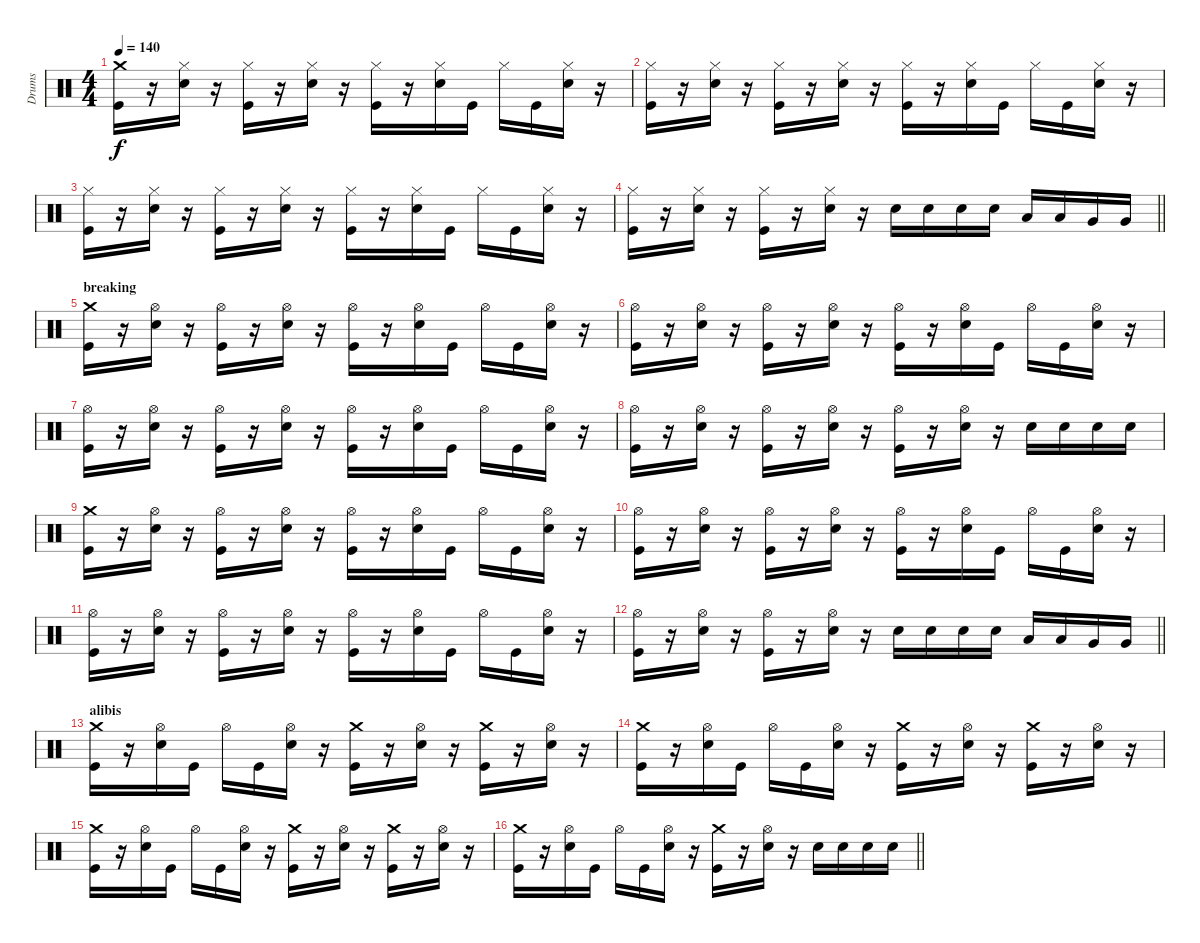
\track ("Drums" "Drums") {instrument percussion}
\staff {score}
\articulation defaults
\ts (4 4)
\tempo 140
\clef neutral
\ks c
("Crash medium (hit)" "Kick (hit)").16{dy f} r.16 ("Hi-Hat (closed)" "Snare (hit) 2").16 r.16 ("Hi-Hat (closed)" "Kick (hit)").16 r.16 ("Hi-Hat (closed)" "Snare (hit) 2").16 r.16 ("Hi-Hat (closed)" "Kick (hit)").16 r.16 ("Hi-Hat (closed)" "Snare (hit) 2").16 "Kick (hit)".16 "Hi-Hat (closed)".16 "Kick (hit)".16 ("Hi-Hat (closed)" "Snare (hit) 2").16 r.16 |
("Hi-Hat (closed)" "Kick (hit)").16 r.16 ("Hi-Hat (closed)" "Snare (hit) 2").16 r.16 ("Hi-Hat (closed)" "Kick (hit)").16 r.16 ("Hi-Hat (closed)" "Snare (hit) 2").16 r.16 ("Hi-Hat (closed)" "Kick (hit)").16 r.16 ("Hi-Hat (closed)" "Snare (hit) 2").16 "Kick (hit)".16 "Hi-Hat (closed)".16 "Kick (hit)".16 ("Hi-Hat (closed)" "Snare (hit) 2").16 r.16 |
("Hi-Hat (closed)" "Kick (hit)").16 r.16 ("Hi-Hat (closed)" "Snare (hit) 2").16 r.16 ("Hi-Hat (closed)" "Kick (hit)").16 r.16 ("Hi-Hat (closed)" "Snare (hit) 2").16 r.16 ("Hi-Hat (closed)" "Kick (hit)").16 r.16 ("Hi-Hat (closed)" "Snare (hit) 2").16 "Kick (hit)".16 "Hi-Hat (closed)".16 "Kick (hit)".16 ("Hi-Hat (closed)" "Snare (hit) 2").16 r.16 |
\barLineRight lightlight
("Hi-Hat (closed)" "Kick (hit)").16 r.16 ("Hi-Hat (closed)" "Snare (hit) 2").16 r.16 ("Hi-Hat (closed)" "Kick (hit)").16 r.16 ("Hi-Hat (closed)" "Snare (hit) 2").16 r.16 "Snare (hit) 2".16 "Snare (hit) 2".16 "Snare (hit) 2".16 "Snare (hit) 2".16 "Low Tom (hit)".16 "Low Tom (hit)".16 "Very Low Tom (hit)".16 "Very Low Tom (hit)".16 |
\section ("" "breaking")
("Crash medium (hit)" "Kick (hit)").16 r.16 ("Hi-Hat (open)" "Snare (hit) 2").16 r.16 ("Hi-Hat (open)" "Kick (hit)").16 r.16 ("Hi-Hat (open)" "Snare (hit) 2").16 r.16 ("Hi-Hat (open)" "Kick (hit)").16 r.16 ("Hi-Hat (open)" "Snare (hit) 2").16 "Kick (hit)".16 "Hi-Hat (open)".16 "Kick (hit)".16 ("Hi-Hat (open)" "Snare (hit) 2").16 r.16 |
("Hi-Hat (open)" "Kick (hit)").16 r.16 ("Hi-Hat (open)" "Snare (hit) 2").16 r.16 ("Hi-Hat (open)" "Kick (hit)").16 r.16 ("Hi-Hat (open)" "Snare (hit) 2").16 r.16 ("Hi-Hat (open)" "Kick (hit)").16 r.16 ("Hi-Hat (open)" "Snare (hit) 2").16 "Kick (hit)".16 "Hi-Hat (open)".16 "Kick (hit)".16 ("Hi-Hat (open)" "Snare (hit) 2").16 r.16 |
("Hi-Hat (open)" "Kick (hit)").16 r.16 ("Hi-Hat (open)" "Snare (hit) 2").16 r.16 ("Hi-Hat (open)" "Kick (hit)").16 r.16 ("Hi-Hat (open)" "Snare (hit) 2").16 r.16 ("Hi-Hat (open)" "Kick (hit)").16 r.16 ("Hi-Hat (open)" "Snare (hit) 2").16 "Kick (hit)".16 "Hi-Hat (open)".16 "Kick (hit)".16 ("Hi-Hat (open)" "Snare (hit) 2").16 r.16 |
("Hi-Hat (open)" "Kick (hit)").16 r.16 ("Hi-Hat (open)" "Snare (hit) 2").16 r.16 ("Hi-Hat (open)" "Kick (hit)").16 r.16 ("Hi-Hat (open)" "Snare (hit) 2").16 r.16 ("Hi-Hat (open)" "Kick (hit)").16 r.16 ("Hi-Hat (open)" "Snare (hit) 2").16 r.16 "Snare (hit) 2".16 "Snare (hit) 2".16 "Snare (hit) 2".16 "Snare (hit) 2".16 |
("Crash medium (hit)" "Kick (hit)").16 r.16 ("Hi-Hat (open)" "Snare (hit) 2").16 r.16 ("Hi-Hat (open)" "Kick (hit)").16 r.16 ("Hi-Hat (open)" "Snare (hit) 2").16 r.16 ("Hi-Hat (open)" "Kick (hit)").16 r.16 ("Hi-Hat (open)" "Snare (hit) 2").16 "Kick (hit)".16 "Hi-Hat (open)".16 "Kick (hit)".16 ("Hi-Hat (open)" "Snare (hit) 2").16 r.16 |
("Hi-Hat (open)" "Kick (hit)").16 r.16 ("Hi-Hat (open)" "Snare (hit) 2").16 r.16 ("Hi-Hat (open)" "Kick (hit)").16 r.16 ("Hi-Hat (open)" "Snare (hit) 2").16 r.16 ("Hi-Hat (open)" "Kick (hit)").16 r.16 ("Hi-Hat (open)" "Snare (hit) 2").16 "Kick (hit)".16 "Hi-Hat (open)".16 "Kick (hit)".16 ("Hi-Hat (open)" "Snare (hit) 2").16 r.16 |
("Hi-Hat (open)" "Kick (hit)").16 r.16 ("Hi-Hat (open)" "Snare (hit) 2").16 r.16 ("Hi-Hat (open)" "Kick (hit)").16 r.16 ("Hi-Hat (open)" "Snare (hit) 2").16 r.16 ("Hi-Hat (open)" "Kick (hit)").16 r.16 ("Hi-Hat (open)" "Snare (hit) 2").16 "Kick (hit)".16 "Hi-Hat (open)".16 "Kick (hit)".16 ("Hi-Hat (open)" "Snare (hit) 2").16 r.16 |
\barLineRight lightlight
("Hi-Hat (open)" "Kick (hit)").16 r.16 ("Hi-Hat (open)" "Snare (hit) 2").16 r.16 ("Hi-Hat (open)" "Kick (hit)").16 r.16 ("Hi-Hat (open)" "Snare (hit) 2").16 r.16 "Snare (hit) 2".16 "Snare (hit) 2".16 "Snare (hit) 2".16 "Snare (hit) 2".16 "Low Tom (hit)".16 "Low Tom (hit)".16 "Very Low Tom (hit)".16 "Very Low Tom (hit)".16 |
\section ("" "alibis")
("Crash medium (hit)" "Kick (hit)").16 r.16 ("Hi-Hat (open)" "Snare (hit) 2").16 "Kick (hit)".16 "Hi-Hat (open)".16 "Kick (hit)".16 ("Hi-Hat (open)" "Snare (hit) 2").16 r.16 ("Crash medium (hit)" "Kick (hit)").16 r.16 ("Hi-Hat (open)" "Snare (hit) 2").16 r.16 ("Crash medium (hit)" "Kick (hit)").16 r.16 ("Hi-Hat (open)" "Snare (hit) 2").16 r.16 |
("Crash medium (hit)" "Kick (hit)").16 r.16 ("Hi-Hat (open)" "Snare (hit) 2").16 "Kick (hit)".16 "Hi-Hat (open)".16 "Kick (hit)".16 ("Hi-Hat (open)" "Snare (hit) 2").16 r.16 ("Crash medium (hit)" "Kick (hit)").16 r.16 ("Hi-Hat (open)" "Snare (hit) 2").16 r.16 ("Crash medium (hit)" "Kick (hit)").16 r.16 ("Hi-Hat (open)" "Snare (hit) 2").16 r.16 |
("Crash medium (hit)" "Kick (hit)").16 r.16 ("Hi-Hat (open)" "Snare (hit) 2").16 "Kick (hit)".16 "Hi-Hat (open)".16 "Kick (hit)".16 ("Hi-Hat (open)" "Snare (hit) 2").16 r.16 ("Crash medium (hit)" "Kick (hit)").16 r.16 ("Hi-Hat (open)" "Snare (hit) 2").16 r.16 ("Crash medium (hit)" "Kick (hit)").16 r.16 ("Hi-Hat (open)" "Snare (hit) 2").16 r.16 |
\barLineRight lightlight
("Crash medium (hit)" "Kick (hit)").16 r.16 ("Hi-Hat (open)" "Snare (hit) 2").16 "Kick (hit)".16 "Hi-Hat (open)".16 "Kick (hit)".16 ("Hi-Hat (open)" "Snare (hit) 2").16 r.16 ("Crash medium (hit)" "Kick (hit)").16 r.16 ("Hi-Hat (open)" "Snare (hit) 2").16 r.16 "Snare (hit) 2".16 "Snare (hit) 2".16 "Snare (hit) 2".16 "Snare (hit) 2".16
